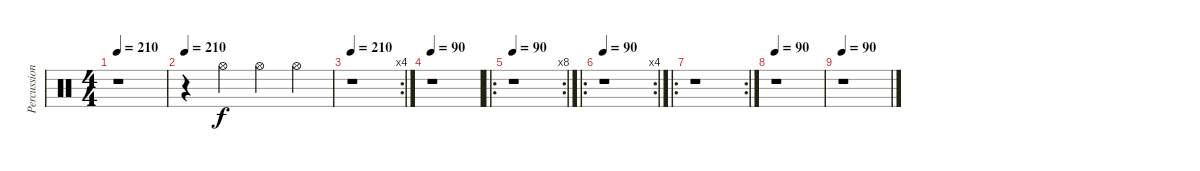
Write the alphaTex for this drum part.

\track ("Percussion" "Percussion") {instrument percussion}
\staff {score}
\articulation defaults
\ts (4 4)
\tempo 210
\clef neutral
\ks c
r.1{dy f} |
\tempo 210
r.4 "Hi-Hat (open)".4 "Hi-Hat (open)".4 "Hi-Hat (open)".4 |
\rc 4
\tempo 210
r.1 |
\tempo 90
r.1 |
\ro
\rc 8
\tempo 90
r.1 |
\ro
\rc 4
\tempo 90
r.1 |
\ro
\rc 2
r.1 |
\tempo 90
r.1 |
\tempo 90
r.1
